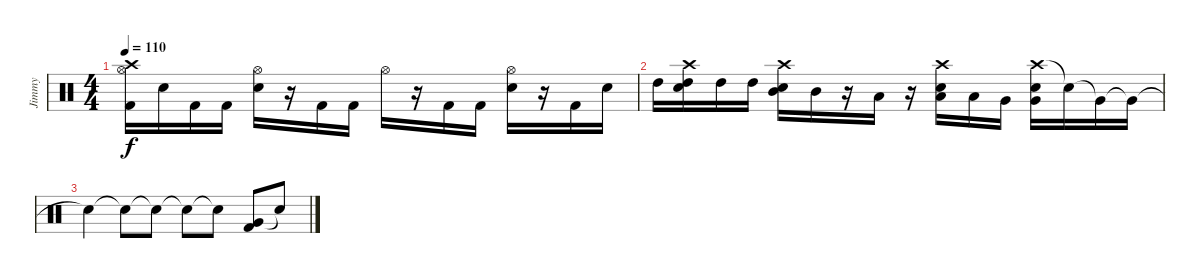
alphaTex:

\track ("Jimmy" "Jimmy") {instrument percussion}
\staff {score}
\articulation defaults
\ts (4 4)
\tempo 110
\clef neutral
\ks c
("Crash high (hit)" "Hi-Hat (open)" "Kick (hit) 2").16{dy f} "Electric Snare (hit)".16 "Kick (hit) 2".16 "Kick (hit) 2".16 ("Hi-Hat (open)" "Electric Snare (hit)").16 r.16 "Kick (hit) 2".16 "Kick (hit) 2".16 "Hi-Hat (open)".16 r.16 "Kick (hit) 2".16 "Kick (hit) 2".16 ("Hi-Hat (open)" "Electric Snare (hit)").16 r.16 "Kick (hit) 2".16 "Electric Snare (hit)".16 |
"High Tom (hit)".16 ("Crash high (hit)" "Electric Snare (hit)" "High Tom (hit)").16 "High Tom (hit)".16 "High Tom (hit)".16 ("Crash high (hit)" "Electric Snare (hit)" "Mid Tom (hit)").16 "Mid Tom (hit)".16 r.16 "Low Tom (hit)".16 r.16 ("Crash high (hit)" "Electric Snare (hit)" "Low Tom (hit)").16 "Low Tom (hit)".16 "Very Low Tom (hit)".16 ("Crash high (hit)" "Electric Snare (hit)" "Very Low Tom (hit)").16 "Snare (hit)"{t}.16 "Very Low Tom (hit)"{t}.16 "Very Low Tom (hit)"{t}.16 |
"Snare (hit)"{t}.4 "Snare (hit)"{t}.8 "Electric Snare (hit)"{t}.8 "Electric Snare (hit)"{t}.8 "Snare (hit)"{t}.8 ("Very Low Tom (hit)" "Kick (hit) 2").8 "Snare (hit)"{t}.8
